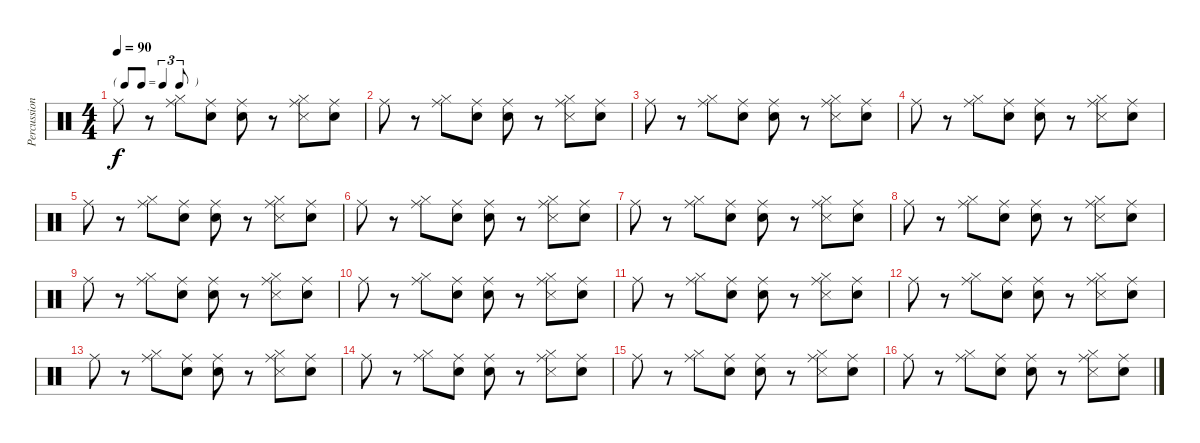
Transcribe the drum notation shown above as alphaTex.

\track ("Percussion" "Percussion") {instrument percussion}
\staff {score}
\articulation defaults
\ts (4 4)
\tf triplet8th
\tempo 90
\clef neutral
\ks c "Ride (middle)".8{dy f}
r.8 ("Hi-Hat (closed)" "Ride (middle)").8 ("Snare (hit)" "Ride (middle)").8 ("Snare (hit)" "Ride (middle)").8 r.8 ("Hi-Hat (closed)" "Snare (side stick) 3" "Ride (middle)").8 ("Snare (hit)" "Ride (middle)").8 |
"Ride (middle)".8 r.8 ("Hi-Hat (closed)" "Ride (middle)").8 ("Snare (hit)" "Ride (middle)").8 ("Snare (hit)" "Ride (middle)").8 r.8 ("Hi-Hat (closed)" "Snare (side stick) 3" "Ride (middle)").8 ("Snare (hit)" "Ride (middle)").8 |
"Ride (middle)".8 r.8 ("Hi-Hat (closed)" "Ride (middle)").8 ("Snare (hit)" "Ride (middle)").8 ("Snare (hit)" "Ride (middle)").8 r.8 ("Hi-Hat (closed)" "Snare (side stick) 3" "Ride (middle)").8 ("Snare (hit)" "Ride (middle)").8 |
"Ride (middle)".8 r.8 ("Hi-Hat (closed)" "Ride (middle)").8 ("Snare (hit)" "Ride (middle)").8 ("Snare (hit)" "Ride (middle)").8 r.8 ("Hi-Hat (closed)" "Snare (side stick) 3" "Ride (middle)").8 ("Snare (hit)" "Ride (middle)").8 |
"Ride (middle)".8 r.8 ("Hi-Hat (closed)" "Ride (middle)").8 ("Snare (hit)" "Ride (middle)").8 ("Snare (hit)" "Ride (middle)").8 r.8 ("Hi-Hat (closed)" "Snare (side stick) 3" "Ride (middle)").8 ("Snare (hit)" "Ride (middle)").8 |
"Ride (middle)".8 r.8 ("Hi-Hat (closed)" "Ride (middle)").8 ("Snare (hit)" "Ride (middle)").8 ("Snare (hit)" "Ride (middle)").8 r.8 ("Hi-Hat (closed)" "Snare (side stick) 3" "Ride (middle)").8 ("Snare (hit)" "Ride (middle)").8 |
"Ride (middle)".8 r.8 ("Hi-Hat (closed)" "Ride (middle)").8 ("Snare (hit)" "Ride (middle)").8 ("Snare (hit)" "Ride (middle)").8 r.8 ("Hi-Hat (closed)" "Snare (side stick) 3" "Ride (middle)").8 ("Snare (hit)" "Ride (middle)").8 |
"Ride (middle)".8 r.8 ("Hi-Hat (closed)" "Ride (middle)").8 ("Snare (hit)" "Ride (middle)").8 ("Snare (hit)" "Ride (middle)").8 r.8 ("Hi-Hat (closed)" "Snare (side stick) 3" "Ride (middle)").8 ("Snare (hit)" "Ride (middle)").8 |
"Ride (middle)".8 r.8 ("Hi-Hat (closed)" "Ride (middle)").8 ("Snare (hit)" "Ride (middle)").8 ("Snare (hit)" "Ride (middle)").8 r.8 ("Hi-Hat (closed)" "Snare (side stick) 3" "Ride (middle)").8 ("Snare (hit)" "Ride (middle)").8 |
"Ride (middle)".8 r.8 ("Hi-Hat (closed)" "Ride (middle)").8 ("Snare (hit)" "Ride (middle)").8 ("Snare (hit)" "Ride (middle)").8 r.8 ("Hi-Hat (closed)" "Snare (side stick) 3" "Ride (middle)").8 ("Snare (hit)" "Ride (middle)").8 |
"Ride (middle)".8 r.8 ("Hi-Hat (closed)" "Ride (middle)").8 ("Snare (hit)" "Ride (middle)").8 ("Snare (hit)" "Ride (middle)").8 r.8 ("Hi-Hat (closed)" "Snare (side stick) 3" "Ride (middle)").8 ("Snare (hit)" "Ride (middle)").8 |
"Ride (middle)".8 r.8 ("Hi-Hat (closed)" "Ride (middle)").8 ("Snare (hit)" "Ride (middle)").8 ("Snare (hit)" "Ride (middle)").8 r.8 ("Hi-Hat (closed)" "Snare (side stick) 3" "Ride (middle)").8 ("Snare (hit)" "Ride (middle)").8 |
"Ride (middle)".8 r.8 ("Hi-Hat (closed)" "Ride (middle)").8 ("Snare (hit)" "Ride (middle)").8 ("Snare (hit)" "Ride (middle)").8 r.8 ("Hi-Hat (closed)" "Snare (side stick) 3" "Ride (middle)").8 ("Snare (hit)" "Ride (middle)").8 |
"Ride (middle)".8 r.8 ("Hi-Hat (closed)" "Ride (middle)").8 ("Snare (hit)" "Ride (middle)").8 ("Snare (hit)" "Ride (middle)").8 r.8 ("Hi-Hat (closed)" "Snare (side stick) 3" "Ride (middle)").8 ("Snare (hit)" "Ride (middle)").8 |
"Ride (middle)".8 r.8 ("Hi-Hat (closed)" "Ride (middle)").8 ("Snare (hit)" "Ride (middle)").8 ("Snare (hit)" "Ride (middle)").8 r.8 ("Hi-Hat (closed)" "Snare (side stick) 3" "Ride (middle)").8 ("Snare (hit)" "Ride (middle)").8 |
"Ride (middle)".8 r.8 ("Hi-Hat (closed)" "Ride (middle)").8 ("Snare (hit)" "Ride (middle)").8 ("Snare (hit)" "Ride (middle)").8 r.8 ("Hi-Hat (closed)" "Snare (side stick) 3" "Ride (middle)").8 ("Snare (hit)" "Ride (middle)").8
